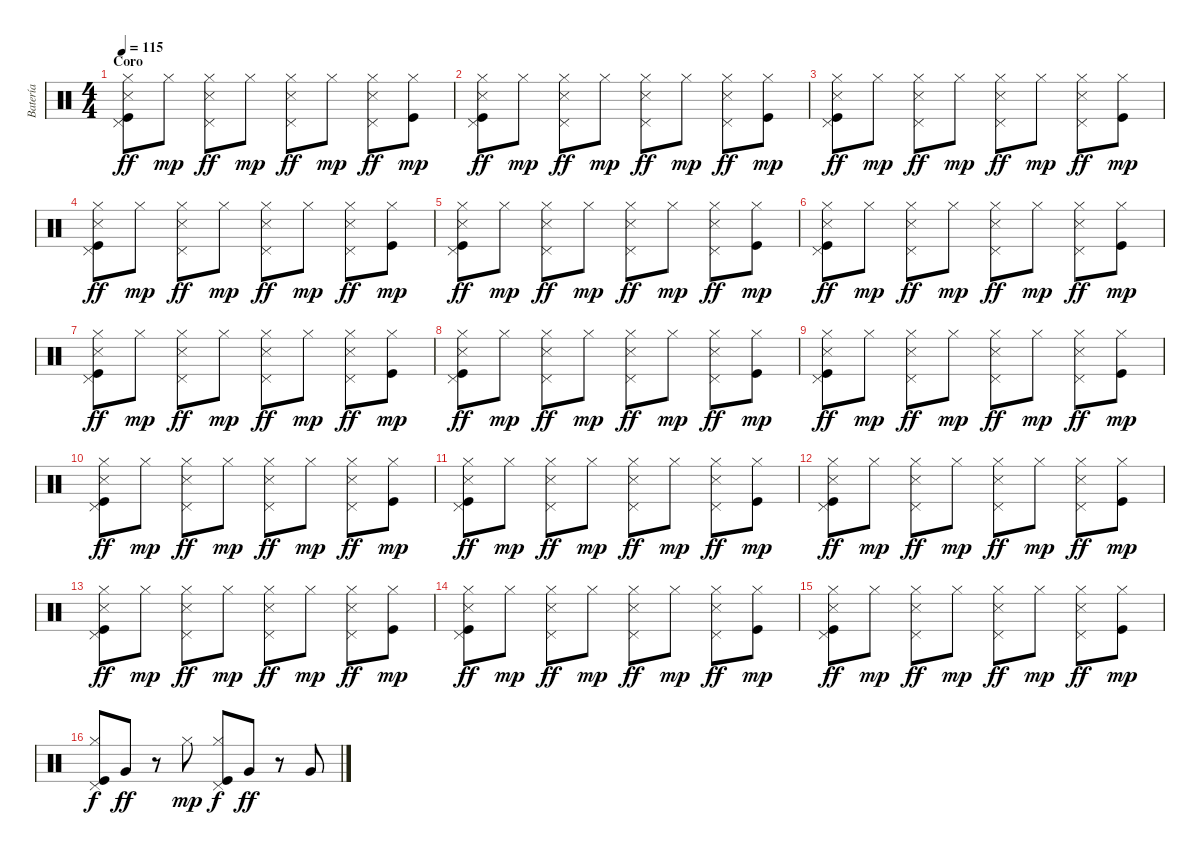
\track ("Batería" "Batería") {instrument percussion}
\staff {score}
\articulation defaults
\ts (4 4)
\section ("" "Coro")
\tempo 115
\clef neutral
\ks c
("Pedal Hi-Hat (hit)" "Hi-Hat (closed)" "Snare (side stick) 3" "Kick (hit)").8{dy ff} "Hi-Hat (closed)".8{dy mp} ("Pedal Hi-Hat (hit)" "Hi-Hat (closed)" "Snare (side stick) 3").8{dy ff} "Hi-Hat (closed)".8{dy mp} ("Pedal Hi-Hat (hit)" "Hi-Hat (closed)" "Snare (side stick) 3").8{dy ff} "Hi-Hat (closed)".8{dy mp} ("Pedal Hi-Hat (hit)" "Hi-Hat (closed)" "Snare (side stick) 3").8{dy ff} ("Hi-Hat (closed)" "Kick (hit)").8{dy mp} |
("Pedal Hi-Hat (hit)" "Hi-Hat (closed)" "Snare (side stick) 3" "Kick (hit)").8{dy ff} "Hi-Hat (closed)".8{dy mp} ("Pedal Hi-Hat (hit)" "Hi-Hat (closed)" "Snare (side stick) 3").8{dy ff} "Hi-Hat (closed)".8{dy mp} ("Pedal Hi-Hat (hit)" "Hi-Hat (closed)" "Snare (side stick) 3").8{dy ff} "Hi-Hat (closed)".8{dy mp} ("Pedal Hi-Hat (hit)" "Hi-Hat (closed)" "Snare (side stick) 3").8{dy ff} ("Hi-Hat (closed)" "Kick (hit)").8{dy mp} |
("Pedal Hi-Hat (hit)" "Hi-Hat (closed)" "Snare (side stick) 3" "Kick (hit)").8{dy ff} "Hi-Hat (closed)".8{dy mp} ("Pedal Hi-Hat (hit)" "Hi-Hat (closed)" "Snare (side stick) 3").8{dy ff} "Hi-Hat (closed)".8{dy mp} ("Pedal Hi-Hat (hit)" "Hi-Hat (closed)" "Snare (side stick) 3").8{dy ff} "Hi-Hat (closed)".8{dy mp} ("Pedal Hi-Hat (hit)" "Hi-Hat (closed)" "Snare (side stick) 3").8{dy ff} ("Hi-Hat (closed)" "Kick (hit)").8{dy mp} |
("Pedal Hi-Hat (hit)" "Hi-Hat (closed)" "Snare (side stick) 3" "Kick (hit)").8{dy ff} "Hi-Hat (closed)".8{dy mp} ("Pedal Hi-Hat (hit)" "Hi-Hat (closed)" "Snare (side stick) 3").8{dy ff} "Hi-Hat (closed)".8{dy mp} ("Pedal Hi-Hat (hit)" "Hi-Hat (closed)" "Snare (side stick) 3").8{dy ff} "Hi-Hat (closed)".8{dy mp} ("Pedal Hi-Hat (hit)" "Hi-Hat (closed)" "Snare (side stick) 3").8{dy ff} ("Hi-Hat (closed)" "Kick (hit)").8{dy mp} |
("Pedal Hi-Hat (hit)" "Hi-Hat (closed)" "Snare (side stick) 3" "Kick (hit)").8{dy ff} "Hi-Hat (closed)".8{dy mp} ("Pedal Hi-Hat (hit)" "Hi-Hat (closed)" "Snare (side stick) 3").8{dy ff} "Hi-Hat (closed)".8{dy mp} ("Pedal Hi-Hat (hit)" "Hi-Hat (closed)" "Snare (side stick) 3").8{dy ff} "Hi-Hat (closed)".8{dy mp} ("Pedal Hi-Hat (hit)" "Hi-Hat (closed)" "Snare (side stick) 3").8{dy ff} ("Hi-Hat (closed)" "Kick (hit)").8{dy mp} |
("Pedal Hi-Hat (hit)" "Hi-Hat (closed)" "Snare (side stick) 3" "Kick (hit)").8{dy ff} "Hi-Hat (closed)".8{dy mp} ("Pedal Hi-Hat (hit)" "Hi-Hat (closed)" "Snare (side stick) 3").8{dy ff} "Hi-Hat (closed)".8{dy mp} ("Pedal Hi-Hat (hit)" "Hi-Hat (closed)" "Snare (side stick) 3").8{dy ff} "Hi-Hat (closed)".8{dy mp} ("Pedal Hi-Hat (hit)" "Hi-Hat (closed)" "Snare (side stick) 3").8{dy ff} ("Hi-Hat (closed)" "Kick (hit)").8{dy mp} |
("Pedal Hi-Hat (hit)" "Hi-Hat (closed)" "Snare (side stick) 3" "Kick (hit)").8{dy ff} "Hi-Hat (closed)".8{dy mp} ("Pedal Hi-Hat (hit)" "Hi-Hat (closed)" "Snare (side stick) 3").8{dy ff} "Hi-Hat (closed)".8{dy mp} ("Pedal Hi-Hat (hit)" "Hi-Hat (closed)" "Snare (side stick) 3").8{dy ff} "Hi-Hat (closed)".8{dy mp} ("Pedal Hi-Hat (hit)" "Hi-Hat (closed)" "Snare (side stick) 3").8{dy ff} ("Hi-Hat (closed)" "Kick (hit)").8{dy mp} |
("Pedal Hi-Hat (hit)" "Hi-Hat (closed)" "Snare (side stick) 3" "Kick (hit)").8{dy ff} "Hi-Hat (closed)".8{dy mp} ("Pedal Hi-Hat (hit)" "Hi-Hat (closed)" "Snare (side stick) 3").8{dy ff} "Hi-Hat (closed)".8{dy mp} ("Pedal Hi-Hat (hit)" "Hi-Hat (closed)" "Snare (side stick) 3").8{dy ff} "Hi-Hat (closed)".8{dy mp} ("Pedal Hi-Hat (hit)" "Hi-Hat (closed)" "Snare (side stick) 3").8{dy ff} ("Hi-Hat (closed)" "Kick (hit)").8{dy mp} |
("Pedal Hi-Hat (hit)" "Hi-Hat (closed)" "Snare (side stick) 3" "Kick (hit)").8{dy ff} "Hi-Hat (closed)".8{dy mp} ("Pedal Hi-Hat (hit)" "Hi-Hat (closed)" "Snare (side stick) 3").8{dy ff} "Hi-Hat (closed)".8{dy mp} ("Pedal Hi-Hat (hit)" "Hi-Hat (closed)" "Snare (side stick) 3").8{dy ff} "Hi-Hat (closed)".8{dy mp} ("Pedal Hi-Hat (hit)" "Hi-Hat (closed)" "Snare (side stick) 3").8{dy ff} ("Hi-Hat (closed)" "Kick (hit)").8{dy mp} |
("Pedal Hi-Hat (hit)" "Hi-Hat (closed)" "Snare (side stick) 3" "Kick (hit)").8{dy ff} "Hi-Hat (closed)".8{dy mp} ("Pedal Hi-Hat (hit)" "Hi-Hat (closed)" "Snare (side stick) 3").8{dy ff} "Hi-Hat (closed)".8{dy mp} ("Pedal Hi-Hat (hit)" "Hi-Hat (closed)" "Snare (side stick) 3").8{dy ff} "Hi-Hat (closed)".8{dy mp} ("Pedal Hi-Hat (hit)" "Hi-Hat (closed)" "Snare (side stick) 3").8{dy ff} ("Hi-Hat (closed)" "Kick (hit)").8{dy mp} |
("Pedal Hi-Hat (hit)" "Hi-Hat (closed)" "Snare (side stick) 3" "Kick (hit)").8{dy ff} "Hi-Hat (closed)".8{dy mp} ("Pedal Hi-Hat (hit)" "Hi-Hat (closed)" "Snare (side stick) 3").8{dy ff} "Hi-Hat (closed)".8{dy mp} ("Pedal Hi-Hat (hit)" "Hi-Hat (closed)" "Snare (side stick) 3").8{dy ff} "Hi-Hat (closed)".8{dy mp} ("Pedal Hi-Hat (hit)" "Hi-Hat (closed)" "Snare (side stick) 3").8{dy ff} ("Hi-Hat (closed)" "Kick (hit)").8{dy mp} |
("Pedal Hi-Hat (hit)" "Hi-Hat (closed)" "Snare (side stick) 3" "Kick (hit)").8{dy ff} "Hi-Hat (closed)".8{dy mp} ("Pedal Hi-Hat (hit)" "Hi-Hat (closed)" "Snare (side stick) 3").8{dy ff} "Hi-Hat (closed)".8{dy mp} ("Pedal Hi-Hat (hit)" "Hi-Hat (closed)" "Snare (side stick) 3").8{dy ff} "Hi-Hat (closed)".8{dy mp} ("Pedal Hi-Hat (hit)" "Hi-Hat (closed)" "Snare (side stick) 3").8{dy ff} ("Hi-Hat (closed)" "Kick (hit)").8{dy mp} |
("Pedal Hi-Hat (hit)" "Hi-Hat (closed)" "Snare (side stick) 3" "Kick (hit)").8{dy ff} "Hi-Hat (closed)".8{dy mp} ("Pedal Hi-Hat (hit)" "Hi-Hat (closed)" "Snare (side stick) 3").8{dy ff} "Hi-Hat (closed)".8{dy mp} ("Pedal Hi-Hat (hit)" "Hi-Hat (closed)" "Snare (side stick) 3").8{dy ff} "Hi-Hat (closed)".8{dy mp} ("Pedal Hi-Hat (hit)" "Hi-Hat (closed)" "Snare (side stick) 3").8{dy ff} ("Hi-Hat (closed)" "Kick (hit)").8{dy mp} |
("Pedal Hi-Hat (hit)" "Hi-Hat (closed)" "Snare (side stick) 3" "Kick (hit)").8{dy ff} "Hi-Hat (closed)".8{dy mp} ("Pedal Hi-Hat (hit)" "Hi-Hat (closed)" "Snare (side stick) 3").8{dy ff} "Hi-Hat (closed)".8{dy mp} ("Pedal Hi-Hat (hit)" "Hi-Hat (closed)" "Snare (side stick) 3").8{dy ff} "Hi-Hat (closed)".8{dy mp} ("Pedal Hi-Hat (hit)" "Hi-Hat (closed)" "Snare (side stick) 3").8{dy ff} ("Hi-Hat (closed)" "Kick (hit)").8{dy mp} |
("Pedal Hi-Hat (hit)" "Hi-Hat (closed)" "Snare (side stick) 3" "Kick (hit)").8{dy ff} "Hi-Hat (closed)".8{dy mp} ("Pedal Hi-Hat (hit)" "Hi-Hat (closed)" "Snare (side stick) 3").8{dy ff} "Hi-Hat (closed)".8{dy mp} ("Pedal Hi-Hat (hit)" "Hi-Hat (closed)" "Snare (side stick) 3").8{dy ff} "Hi-Hat (closed)".8{dy mp} ("Pedal Hi-Hat (hit)" "Hi-Hat (closed)" "Snare (side stick) 3").8{dy ff} ("Hi-Hat (closed)" "Kick (hit)").8{dy mp} |
("Pedal Hi-Hat (hit)" "Hi-Hat (closed)" "Kick (hit)").8{dy f} "Very Low Tom (hit)".8{dy ff} r.8 "Hi-Hat (closed)".8{dy mp} ("Pedal Hi-Hat (hit)" "Hi-Hat (closed)" "Kick (hit)").8{dy f} "Very Low Tom (hit)".8{dy ff} r.8 "Very Low Tom (hit)".8
